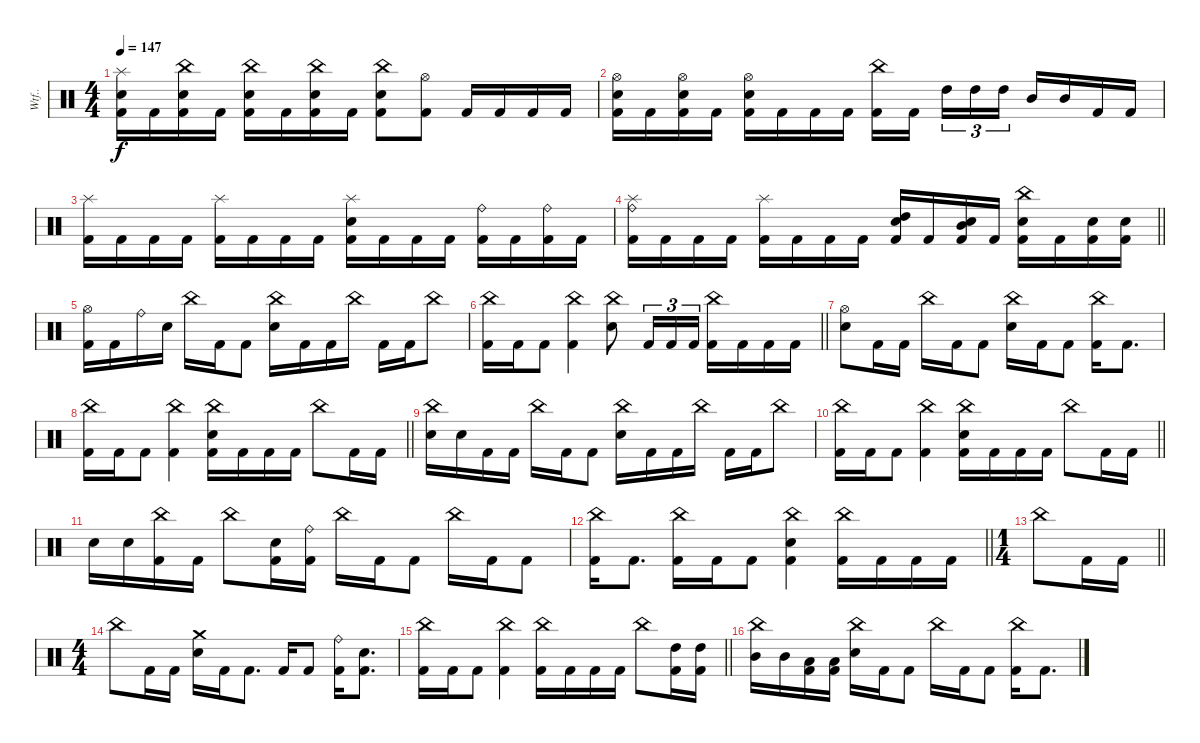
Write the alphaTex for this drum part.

\track ("Wtf.." "Wtf..") {instrument percussion}
\staff {score}
\articulation defaults
\ts (4 4)
\tempo 147
\clef neutral
\ks c
("Splash (hit)" "Electric Snare (hit)" "Kick (hit) 2").16{dy f} "Kick (hit) 2".16 ("China (hit)" "Electric Snare (hit)" "Kick (hit) 2").16 "Kick (hit) 2".16 ("China (hit)" "Electric Snare (hit)" "Kick (hit) 2").16 "Kick (hit) 2".16 ("China (hit)" "Electric Snare (hit)" "Kick (hit) 2").16 "Kick (hit) 2".16 ("China (hit)" "Electric Snare (hit)" "Kick (hit) 2").8 ("Hi-Hat (open)" "Kick (hit) 2").8 "Kick (hit) 2".16 "Kick (hit) 2".16 "Kick (hit) 2".16 "Kick (hit) 2".16 |
("Hi-Hat (open)" "Electric Snare (hit)" "Kick (hit) 2").16 "Kick (hit) 2".16 ("Hi-Hat (open)" "Electric Snare (hit)" "Kick (hit) 2").16 "Kick (hit) 2".16 ("Hi-Hat (open)" "Electric Snare (hit)" "Kick (hit) 2").16 "Kick (hit) 2".16 "Kick (hit) 2".16 "Kick (hit) 2".16 ("China (hit)" "Kick (hit) 2").16 "Kick (hit) 2".16{beam splitsecondary} "High Tom (hit)".16{tu (3 2)} "High Tom (hit)".16{tu (3 2)} "High Tom (hit)".16{tu (3 2)} "Mid Tom (hit)".16 "Mid Tom (hit)".16 "Kick (hit) 2".16 "Kick (hit) 2".16 |
("Splash (hit)" "Kick (hit) 2").16 "Kick (hit) 2".16 "Kick (hit) 2".16 "Kick (hit) 2".16 ("Splash (hit)" "Kick (hit) 2").16 "Kick (hit) 2".16 "Kick (hit) 2".16 "Kick (hit) 2".16 ("Splash (hit)" "Electric Snare (hit)" "Kick (hit) 2").16 "Kick (hit) 2".16 "Kick (hit) 2".16 "Kick (hit) 2".16 ("Ride (bell)" "Kick (hit) 2").16 "Kick (hit) 2".16 ("Ride (bell)" "Kick (hit) 2").16 "Kick (hit) 2".16 |
\barLineRight lightlight
("Ride (bell)" "Splash (hit)" "Kick (hit) 2").16 "Kick (hit) 2".16 "Kick (hit) 2".16 "Kick (hit) 2".16 ("Splash (hit)" "Kick (hit) 2").16 "Kick (hit) 2".16 "Kick (hit) 2".16 "Kick (hit) 2".16 ("High Tom (hit)" "Electric Snare (hit)" "Kick (hit) 2").16 "Kick (hit) 2".16 ("Mid Tom (hit)" "Electric Snare (hit)" "Kick (hit) 2").16 "Kick (hit) 2".16 ("China (hit)" "Electric Snare (hit)" "Kick (hit) 2").16 "Kick (hit) 2".16 ("Electric Snare (hit)" "Kick (hit) 2").16 ("Electric Snare (hit)" "Kick (hit) 2").16 |
\section ("" "")
("Hi-Hat (open)" "Kick (hit) 2").16 "Kick (hit) 2".16 "Ride (bell)".16 "Electric Snare (hit)".16 "China (hit)".16 "Kick (hit) 2".16 "Kick (hit) 2".8 ("China (hit)" "Electric Snare (hit)").16 "Kick (hit) 2".16 "Kick (hit) 2".16 "China (hit)".16 "Kick (hit) 2".16 "Kick (hit) 2".16 "China (hit)".8 |
\barLineRight lightlight
("China (hit)" "Kick (hit) 2").16 "Kick (hit) 2".16 "Kick (hit) 2".8 ("China (hit)" "Kick (hit) 2").4 ("China (hit)" "Electric Snare (hit)").8 "Kick (hit) 2".16{tu (3 2)} "Kick (hit) 2".16{tu (3 2)} "Kick (hit) 2".16{tu (3 2)} ("China (hit)" "Kick (hit) 2").16 "Kick (hit) 2".16 "Kick (hit) 2".16 "Kick (hit) 2".16 |
("Hi-Hat (open)" "Electric Snare (hit)").8 "Kick (hit) 2".16 "Kick (hit) 2".16 "China (hit)".16 "Kick (hit) 2".16 "Kick (hit) 2".8 ("China (hit)" "Electric Snare (hit)").16 "Kick (hit) 2".16 "Kick (hit) 2".8 ("China (hit)" "Kick (hit) 2").16 "Kick (hit) 2".8{d} |
\barLineRight lightlight
("China (hit)" "Kick (hit) 2").16 "Kick (hit) 2".16 "Kick (hit) 2".8 ("China (hit)" "Kick (hit) 2").4 ("China (hit)" "Electric Snare (hit)" "Kick (hit) 2").16 "Kick (hit) 2".16 "Kick (hit) 2".16 "Kick (hit) 2".16 "China (hit)".8 "Kick (hit) 2".16 "Kick (hit) 2".16 |
("China (hit)" "Electric Snare (hit)").16 "Electric Snare (hit)".16 "Kick (hit) 2".16 "Kick (hit) 2".16 "China (hit)".16 "Kick (hit) 2".16 "Kick (hit) 2".8 ("China (hit)" "Electric Snare (hit)").16 "Kick (hit) 2".16 "Kick (hit) 2".16 "China (hit)".16 "Kick (hit) 2".16 "Kick (hit) 2".16 "China (hit)".8 |
\barLineRight lightlight
("China (hit)" "Kick (hit) 2").16 "Kick (hit) 2".16 "Kick (hit) 2".8 ("China (hit)" "Kick (hit) 2").4 ("China (hit)" "Electric Snare (hit)" "Kick (hit) 2").16 "Kick (hit) 2".16 "Kick (hit) 2".16 "Kick (hit) 2".16 "China (hit)".8 "Kick (hit) 2".16 "Kick (hit) 2".16 |
"Electric Snare (hit)".16 "Electric Snare (hit)".16 ("China (hit)" "Kick (hit) 2").16 "Kick (hit) 2".16 "China (hit)".8 ("Electric Snare (hit)" "Kick (hit) 2").16 ("Ride (bell)" "Kick (hit) 2").16 "China (hit)".16 "Kick (hit) 2".16 "Kick (hit) 2".8 "China (hit)".16 "Kick (hit) 2".16 "Kick (hit) 2".8 |
\barLineRight lightlight
("China (hit)" "Kick (hit) 2").16 "Kick (hit) 2".8{d} ("China (hit)" "Kick (hit) 2").16 "Kick (hit) 2".16 "Kick (hit) 2".8 ("China (hit)" "Electric Snare (hit)" "Kick (hit) 2").4 ("China (hit)" "Kick (hit) 2").16 "Kick (hit) 2".16 "Kick (hit) 2".16 "Kick (hit) 2".16 |
\ts (1 4)
\barLineRight lightlight "China (hit)".8 "Kick (hit) 2".16 "Kick (hit) 2".16
|
\ts (4 4)
\section ("" "")
"China (hit)".8 "Kick (hit) 2".16 "Kick (hit) 2".16 ("Crash medium (hit)" "Electric Snare (hit)").16 "Kick (hit) 2".16 "Kick (hit) 2".8{d} "Kick (hit) 2".16 "Kick (hit) 2".8 ("Ride (bell)" "Kick (hit) 2").16 ("Electric Snare (hit)" "Kick (hit) 2").8{d} |
\barLineRight lightlight
("China (hit)" "Kick (hit) 2").16 "Kick (hit) 2".16 "Kick (hit) 2".8 ("China (hit)" "Kick (hit) 2").4 ("China (hit)" "Kick (hit) 2").16 "Kick (hit) 2".16 "Kick (hit) 2".16 "Kick (hit) 2".16 "China (hit)".8 ("High Tom (hit)" "Kick (hit) 2").16 ("High Tom (hit)" "Kick (hit) 2").16 |
("China (hit)" "Mid Tom (hit)").16 "Mid Tom (hit)".16 ("Low Tom (hit)" "Kick (hit) 2").16 ("Low Tom (hit)" "Kick (hit) 2").16 ("China (hit)" "Electric Snare (hit)").16 "Kick (hit) 2".16 "Kick (hit) 2".8 "China (hit)".16 "Kick (hit) 2".16 "Kick (hit) 2".8 ("China (hit)" "Kick (hit) 2").16 "Kick (hit) 2".8{d}
